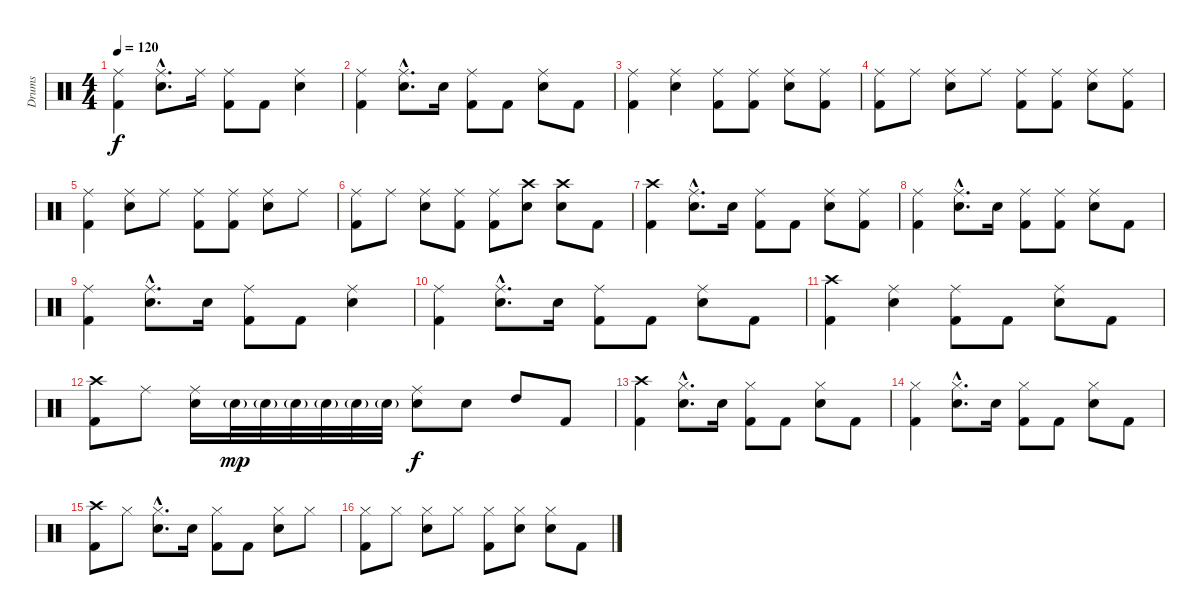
\track ("Drums" "Drums") {instrument percussion}
\staff {score}
\articulation defaults
\ts (4 4)
\tempo 120
\clef neutral
\ks c
("Ride (middle)" "Kick (hit) 2").4{dy f} ("Ride (middle)"{hac} "Snare (hit) 2"{hac}).8{d} "Ride (middle)".16 ("Ride (middle)" "Kick (hit) 2").8 "Kick (hit) 2".8 ("Ride (middle)" "Snare (hit) 2").4 |
("Ride (middle)" "Kick (hit) 2").4 ("Ride (middle)"{hac} "Snare (hit) 2"{hac}).8{d} "Snare (hit) 2".16 ("Ride (middle)" "Kick (hit) 2").8 "Kick (hit) 2".8 ("Ride (middle)" "Snare (hit) 2").8 "Kick (hit) 2".8 |
("Ride (middle)" "Kick (hit) 2").4 ("Ride (middle)" "Snare (hit) 2").4 ("Ride (middle)" "Kick (hit) 2").8 ("Ride (middle)" "Kick (hit) 2").8 ("Ride (middle)" "Snare (hit) 2").8 ("Ride (middle)" "Kick (hit) 2").8 |
("Ride (middle)" "Kick (hit) 2").8 "Ride (middle)".8 ("Ride (middle)" "Snare (hit) 2").8 "Ride (middle)".8 ("Ride (middle)" "Kick (hit) 2").8 ("Ride (middle)" "Kick (hit) 2").8 ("Ride (middle)" "Snare (hit) 2").8 ("Ride (middle)" "Kick (hit) 2").8 |
("Ride (middle)" "Kick (hit) 2").4 ("Ride (middle)" "Snare (hit) 2").8 "Ride (middle)".8 ("Ride (middle)" "Kick (hit) 2").8 ("Ride (middle)" "Kick (hit) 2").8 ("Ride (middle)" "Snare (hit) 2").8 "Ride (middle)".8 |
("Ride (middle)" "Kick (hit) 2").8 "Ride (middle)".8 ("Ride (middle)" "Snare (hit) 2").8 ("Ride (middle)" "Kick (hit) 2").8 ("Ride (middle)" "Kick (hit) 2").8 ("Crash high (hit)" "Snare (hit) 2").8 ("Crash high (hit)" "Snare (hit) 2").8 "Kick (hit) 2".8 |
("Crash high (hit)" "Kick (hit) 2").4 ("Ride (middle)"{hac} "Snare (hit) 2"{hac}).8{d} "Snare (hit) 2".16 ("Ride (middle)" "Kick (hit) 2").8 "Kick (hit) 2".8 ("Ride (middle)" "Snare (hit) 2").8 ("Ride (middle)" "Kick (hit) 2").8 |
("Ride (middle)" "Kick (hit) 2").4 ("Ride (middle)"{hac} "Snare (hit) 2"{hac}).8{d} "Snare (hit) 2".16 ("Ride (middle)" "Kick (hit) 2").8 ("Ride (middle)" "Kick (hit) 2").8 ("Ride (middle)" "Snare (hit) 2").8 "Kick (hit) 2".8 |
("Ride (middle)" "Kick (hit) 2").4 ("Ride (middle)"{hac} "Snare (hit) 2"{hac}).8{d} "Snare (hit) 2".16 ("Ride (middle)" "Kick (hit) 2").8 "Kick (hit) 2".8 ("Ride (middle)" "Snare (hit) 2").4 |
("Ride (middle)" "Kick (hit) 2").4 ("Ride (middle)"{hac} "Snare (hit) 2"{hac}).8{d} "Snare (hit) 2".16 ("Ride (middle)" "Kick (hit) 2").8 "Kick (hit) 2".8 ("Ride (middle)" "Snare (hit) 2").8 "Kick (hit) 2".8 |
("Crash high (hit)" "Kick (hit) 2").4 ("Ride (middle)" "Snare (hit) 2").4 ("Ride (middle)" "Kick (hit) 2").8 "Kick (hit) 2".8 ("Ride (middle)" "Snare (hit) 2").8 "Kick (hit) 2".8 |
("Crash high (hit)" "Kick (hit) 2").8 "Ride (middle)".8 ("Ride (middle)" "Snare (hit) 2").16 "Snare (hit) 2"{g}.32{dy mp} "Snare (hit) 2"{g}.32 "Snare (hit) 2"{g}.32 "Snare (hit) 2"{g}.32 "Snare (hit) 2"{g}.32 "Snare (hit) 2"{g}.32 ("Ride (middle)" "Snare (hit) 2").8{dy f} "Snare (hit) 2".8 "High Tom (hit)".8 "Kick (hit) 2".8 |
("Crash high (hit)" "Kick (hit) 2").4 ("Hi-Hat (closed)"{hac} "Snare (hit) 2"{hac}).8{d} "Snare (hit) 2".16 ("Hi-Hat (closed)" "Kick (hit) 2").8 "Kick (hit) 2".8 ("Hi-Hat (closed)" "Snare (hit) 2").8 "Kick (hit) 2".8 |
("Hi-Hat (closed)" "Kick (hit) 2").4 ("Hi-Hat (closed)"{hac} "Snare (hit) 2"{hac}).8{d} "Snare (hit) 2".16 ("Hi-Hat (closed)" "Kick (hit) 2").8 "Kick (hit) 2".8 ("Hi-Hat (closed)" "Snare (hit) 2").8 "Kick (hit) 2".8 |
("Crash high (hit)" "Kick (hit) 2").8 "Hi-Hat (closed)".8 ("Hi-Hat (closed)"{hac} "Snare (hit) 2"{hac}).8{d} "Snare (hit) 2".16 ("Hi-Hat (closed)" "Kick (hit) 2").8 "Kick (hit) 2".8 ("Hi-Hat (closed)" "Snare (hit) 2").8 "Hi-Hat (closed)".8 |
("Hi-Hat (closed)" "Kick (hit) 2").8 "Hi-Hat (closed)".8 ("Hi-Hat (closed)" "Snare (hit) 2").8 "Hi-Hat (closed)".8 ("Hi-Hat (closed)" "Kick (hit) 2").8 ("Hi-Hat (closed)" "Snare (hit) 2").8 ("Hi-Hat (closed)" "Snare (hit) 2").8 "Kick (hit) 2".8
